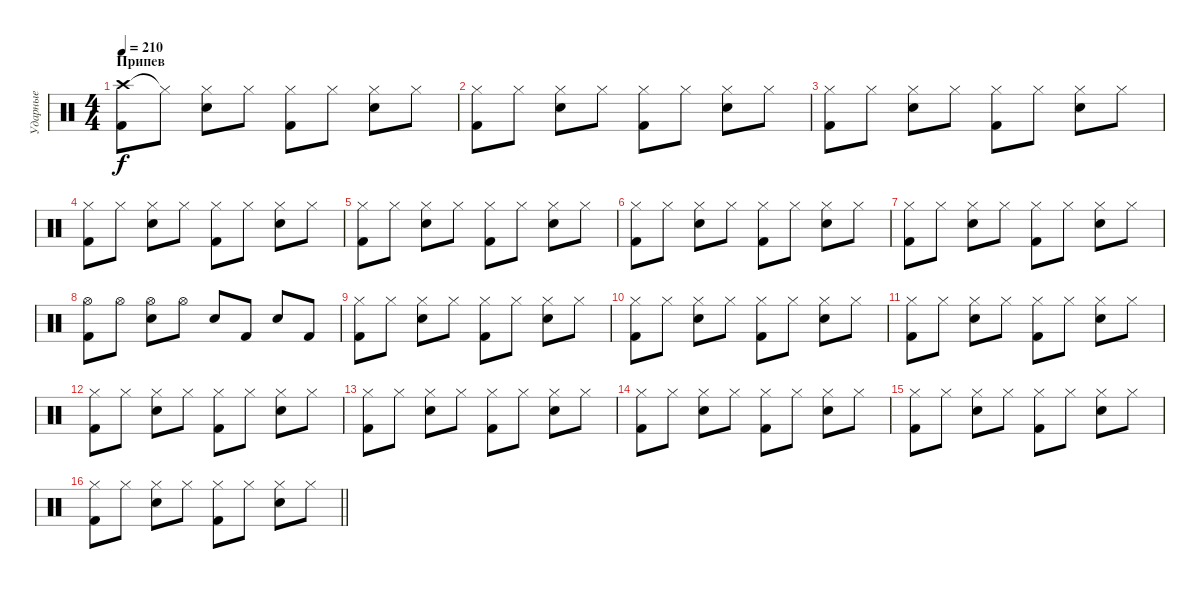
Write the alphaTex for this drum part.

\track ("Ударные" "Ударные") {instrument percussion}
\staff {score}
\articulation defaults
\ts (4 4)
\section ("" "Припев")
\tempo 210
\clef neutral
\ks c
("Crash high (hit)" "Kick (hit) 2").8{dy f} "Hi-Hat (closed)"{t}.8 ("Hi-Hat (closed)" "Electric Snare (hit)").8 "Hi-Hat (closed)".8 ("Hi-Hat (closed)" "Kick (hit) 2").8 "Hi-Hat (closed)".8 ("Hi-Hat (closed)" "Electric Snare (hit)").8 "Hi-Hat (closed)".8 |
("Hi-Hat (closed)" "Kick (hit) 2").8 "Hi-Hat (closed)".8 ("Hi-Hat (closed)" "Electric Snare (hit)").8 "Hi-Hat (closed)".8 ("Hi-Hat (closed)" "Kick (hit) 2").8 "Hi-Hat (closed)".8 ("Hi-Hat (closed)" "Electric Snare (hit)").8 "Hi-Hat (closed)".8 |
("Hi-Hat (closed)" "Kick (hit) 2").8 "Hi-Hat (closed)".8 ("Hi-Hat (closed)" "Electric Snare (hit)").8 "Hi-Hat (closed)".8 ("Hi-Hat (closed)" "Kick (hit) 2").8 "Hi-Hat (closed)".8 ("Hi-Hat (closed)" "Electric Snare (hit)").8 "Hi-Hat (closed)".8 |
("Hi-Hat (closed)" "Kick (hit) 2").8 "Hi-Hat (closed)".8 ("Hi-Hat (closed)" "Electric Snare (hit)").8 "Hi-Hat (closed)".8 ("Hi-Hat (closed)" "Kick (hit) 2").8 "Hi-Hat (closed)".8 ("Hi-Hat (closed)" "Electric Snare (hit)").8 "Hi-Hat (closed)".8 |
("Hi-Hat (closed)" "Kick (hit) 2").8 "Hi-Hat (closed)".8 ("Hi-Hat (closed)" "Electric Snare (hit)").8 "Hi-Hat (closed)".8 ("Hi-Hat (closed)" "Kick (hit) 2").8 "Hi-Hat (closed)".8 ("Hi-Hat (closed)" "Electric Snare (hit)").8 "Hi-Hat (closed)".8 |
("Hi-Hat (closed)" "Kick (hit) 2").8 "Hi-Hat (closed)".8 ("Hi-Hat (closed)" "Electric Snare (hit)").8 "Hi-Hat (closed)".8 ("Hi-Hat (closed)" "Kick (hit) 2").8 "Hi-Hat (closed)".8 ("Hi-Hat (closed)" "Electric Snare (hit)").8 "Hi-Hat (closed)".8 |
("Hi-Hat (closed)" "Kick (hit) 2").8 "Hi-Hat (closed)".8 ("Hi-Hat (closed)" "Electric Snare (hit)").8 "Hi-Hat (closed)".8 ("Hi-Hat (closed)" "Kick (hit) 2").8 "Hi-Hat (closed)".8 ("Hi-Hat (closed)" "Electric Snare (hit)").8 "Hi-Hat (closed)".8 |
("Hi-Hat (open)" "Kick (hit) 2").8 "Hi-Hat (open)".8 ("Hi-Hat (open)" "Electric Snare (hit)").8 "Hi-Hat (open)".8 "Electric Snare (hit)".8 "Kick (hit) 2".8 "Electric Snare (hit)".8 "Kick (hit) 2".8 |
("Hi-Hat (closed)" "Kick (hit) 2").8 "Hi-Hat (closed)".8 ("Hi-Hat (closed)" "Electric Snare (hit)").8 "Hi-Hat (closed)".8 ("Hi-Hat (closed)" "Kick (hit) 2").8 "Hi-Hat (closed)".8 ("Hi-Hat (closed)" "Electric Snare (hit)").8 "Hi-Hat (closed)".8 |
("Hi-Hat (closed)" "Kick (hit) 2").8 "Hi-Hat (closed)".8 ("Hi-Hat (closed)" "Electric Snare (hit)").8 "Hi-Hat (closed)".8 ("Hi-Hat (closed)" "Kick (hit) 2").8 "Hi-Hat (closed)".8 ("Hi-Hat (closed)" "Electric Snare (hit)").8 "Hi-Hat (closed)".8 |
("Hi-Hat (closed)" "Kick (hit) 2").8 "Hi-Hat (closed)".8 ("Hi-Hat (closed)" "Electric Snare (hit)").8 "Hi-Hat (closed)".8 ("Hi-Hat (closed)" "Kick (hit) 2").8 "Hi-Hat (closed)".8 ("Hi-Hat (closed)" "Electric Snare (hit)").8 "Hi-Hat (closed)".8 |
("Hi-Hat (closed)" "Kick (hit) 2").8 "Hi-Hat (closed)".8 ("Hi-Hat (closed)" "Electric Snare (hit)").8 "Hi-Hat (closed)".8 ("Hi-Hat (closed)" "Kick (hit) 2").8 "Hi-Hat (closed)".8 ("Hi-Hat (closed)" "Electric Snare (hit)").8 "Hi-Hat (closed)".8 |
("Hi-Hat (closed)" "Kick (hit) 2").8 "Hi-Hat (closed)".8 ("Hi-Hat (closed)" "Electric Snare (hit)").8 "Hi-Hat (closed)".8 ("Hi-Hat (closed)" "Kick (hit) 2").8 "Hi-Hat (closed)".8 ("Hi-Hat (closed)" "Electric Snare (hit)").8 "Hi-Hat (closed)".8 |
("Hi-Hat (closed)" "Kick (hit) 2").8 "Hi-Hat (closed)".8 ("Hi-Hat (closed)" "Electric Snare (hit)").8 "Hi-Hat (closed)".8 ("Hi-Hat (closed)" "Kick (hit) 2").8 "Hi-Hat (closed)".8 ("Hi-Hat (closed)" "Electric Snare (hit)").8 "Hi-Hat (closed)".8 |
("Hi-Hat (closed)" "Kick (hit) 2").8 "Hi-Hat (closed)".8 ("Hi-Hat (closed)" "Electric Snare (hit)").8 "Hi-Hat (closed)".8 ("Hi-Hat (closed)" "Kick (hit) 2").8 "Hi-Hat (closed)".8 ("Hi-Hat (closed)" "Electric Snare (hit)").8 "Hi-Hat (closed)".8 |
\barLineRight lightlight
("Hi-Hat (closed)" "Kick (hit) 2").8 "Hi-Hat (closed)".8 ("Hi-Hat (closed)" "Electric Snare (hit)").8 "Hi-Hat (closed)".8 ("Hi-Hat (closed)" "Kick (hit) 2").8 "Hi-Hat (closed)".8 ("Hi-Hat (closed)" "Electric Snare (hit)").8 "Hi-Hat (closed)".8
